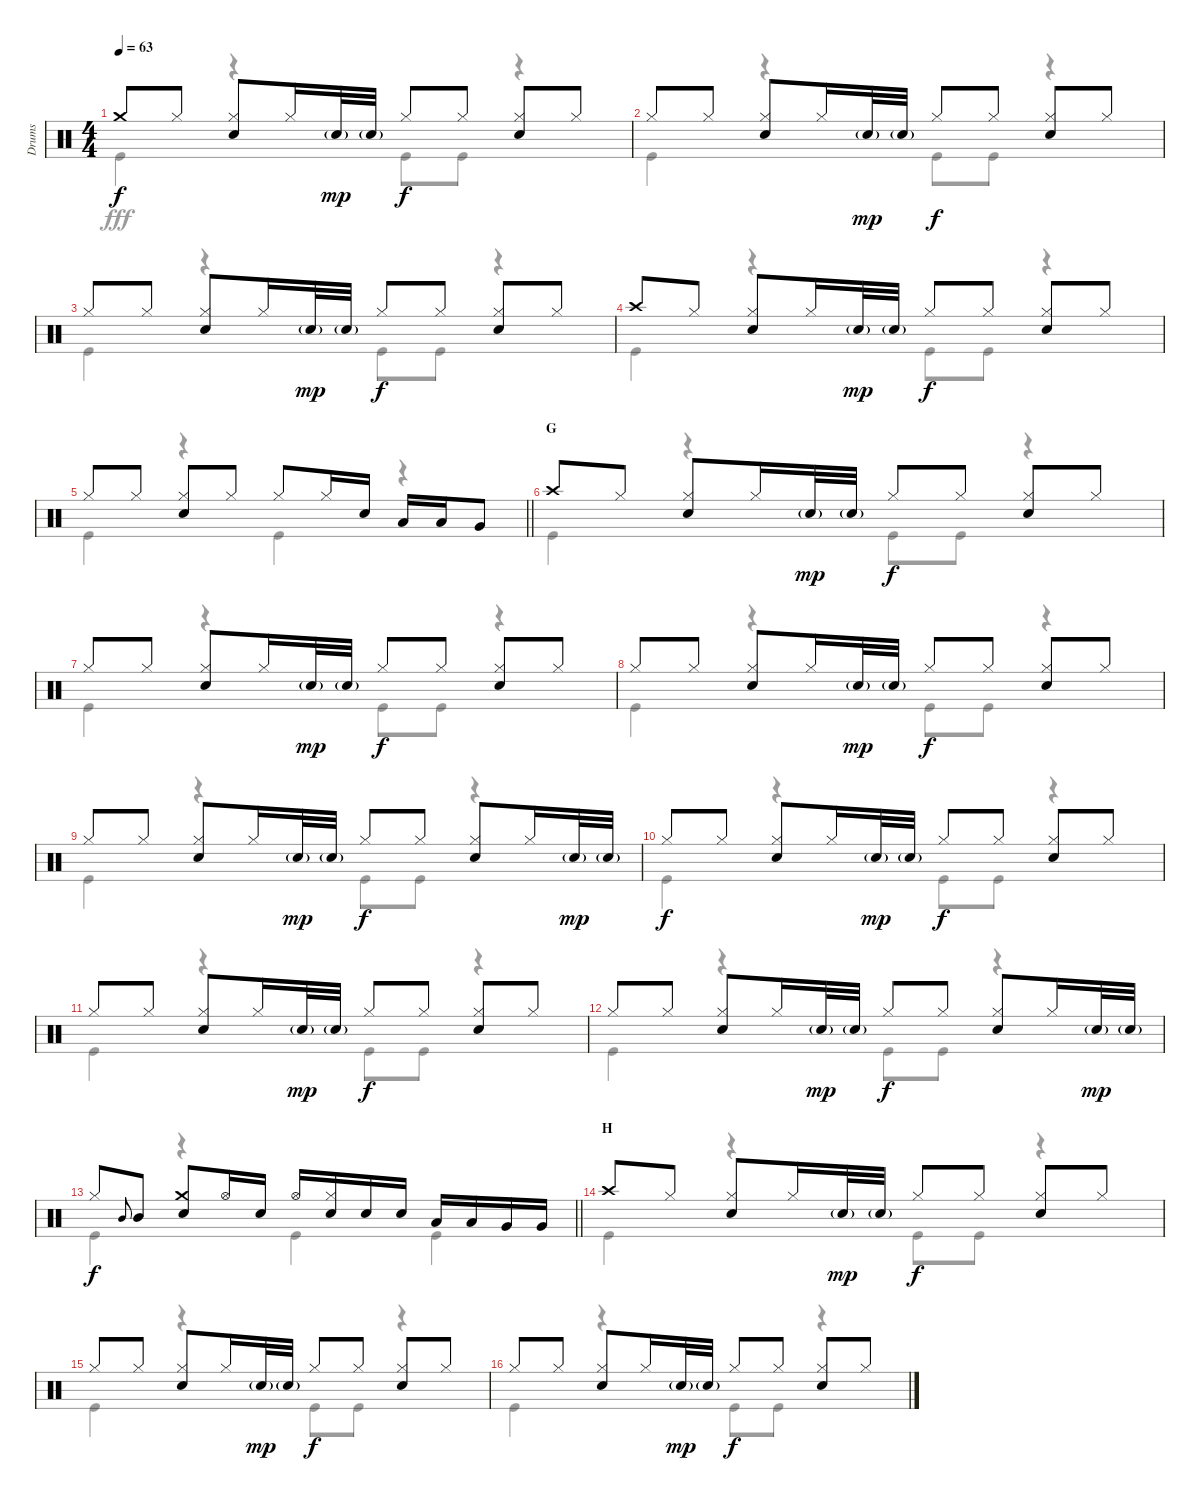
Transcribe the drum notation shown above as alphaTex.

\track ("Drums" "Drums") {instrument percussion}
\staff {score}
\articulation defaults
\voice
\ts (4 4)
\tempo 63
\clef neutral
\ks c "Crash medium (hit)".8{dy f} "Hi-Hat (closed)".8
("Hi-Hat (closed)" "Snare (hit) 2").8 "Hi-Hat (closed)".16 "Snare (hit) 2"{g}.32{dy mp} "Snare (hit) 2"{g}.32 "Hi-Hat (closed)".8{dy f} "Hi-Hat (closed)".8 ("Hi-Hat (closed)" "Snare (hit) 2").8 "Hi-Hat (closed)".8 |
"Hi-Hat (closed)".8 "Hi-Hat (closed)".8 ("Hi-Hat (closed)" "Snare (hit) 2").8 "Hi-Hat (closed)".16 "Snare (hit) 2"{g}.32{dy mp} "Snare (hit) 2"{g}.32 "Hi-Hat (closed)".8{dy f} "Hi-Hat (closed)".8 ("Hi-Hat (closed)" "Snare (hit) 2").8 "Hi-Hat (closed)".8 |
"Hi-Hat (closed)".8 "Hi-Hat (closed)".8 ("Hi-Hat (closed)" "Snare (hit) 2").8 "Hi-Hat (closed)".16 "Snare (hit) 2"{g}.32{dy mp} "Snare (hit) 2"{g}.32 "Hi-Hat (closed)".8{dy f} "Hi-Hat (closed)".8 ("Hi-Hat (closed)" "Snare (hit) 2").8 "Hi-Hat (closed)".8 |
"Crash high (hit)".8 "Hi-Hat (closed)".8 ("Hi-Hat (closed)" "Snare (hit) 2").8 "Hi-Hat (closed)".16 "Snare (hit) 2"{g}.32{dy mp} "Snare (hit) 2"{g}.32 "Hi-Hat (closed)".8{dy f} "Hi-Hat (closed)".8 ("Hi-Hat (closed)" "Snare (hit) 2").8 "Hi-Hat (closed)".8 |
\barLineRight lightlight "Hi-Hat (closed)".8 "Hi-Hat (closed)".8
("Hi-Hat (closed)" "Snare (hit) 2").8 "Hi-Hat (closed)".8 "Hi-Hat (closed)".8 "Hi-Hat (closed)".16 "Snare (hit) 2".16 "Low Tom (hit)".16 "Low Tom (hit)".16 "Very Low Tom (hit)".8 |
\section ("" "G")
"Crash high (hit)".8 "Hi-Hat (closed)".8 ("Hi-Hat (closed)" "Snare (hit) 2").8 "Hi-Hat (closed)".16 "Snare (hit) 2"{g}.32{dy mp} "Snare (hit) 2"{g}.32 "Hi-Hat (closed)".8{dy f} "Hi-Hat (closed)".8 ("Hi-Hat (closed)" "Snare (hit) 2").8 "Hi-Hat (closed)".8 |
"Hi-Hat (closed)".8 "Hi-Hat (closed)".8 ("Hi-Hat (closed)" "Snare (hit) 2").8 "Hi-Hat (closed)".16 "Snare (hit) 2"{g}.32{dy mp} "Snare (hit) 2"{g}.32 "Hi-Hat (closed)".8{dy f} "Hi-Hat (closed)".8 ("Hi-Hat (closed)" "Snare (hit) 2").8 "Hi-Hat (closed)".8 |
"Hi-Hat (closed)".8 "Hi-Hat (closed)".8 ("Hi-Hat (closed)" "Snare (hit) 2").8 "Hi-Hat (closed)".16 "Snare (hit) 2"{g}.32{dy mp} "Snare (hit) 2"{g}.32 "Hi-Hat (closed)".8{dy f} "Hi-Hat (closed)".8 ("Hi-Hat (closed)" "Snare (hit) 2").8 "Hi-Hat (closed)".8 |
"Hi-Hat (closed)".8 "Hi-Hat (closed)".8 ("Hi-Hat (closed)" "Snare (hit) 2").8 "Hi-Hat (closed)".16 "Snare (hit) 2"{g}.32{dy mp} "Snare (hit) 2"{g}.32 "Hi-Hat (closed)".8{dy f} "Hi-Hat (closed)".8 ("Hi-Hat (closed)" "Snare (hit) 2").8 "Hi-Hat (closed)".16 "Snare (hit) 2"{g}.32{dy mp} "Snare (hit) 2"{g}.32 |
"Hi-Hat (closed)".8{dy f} "Hi-Hat (closed)".8 ("Hi-Hat (closed)" "Snare (hit) 2").8 "Hi-Hat (closed)".16 "Snare (hit) 2"{g}.32{dy mp} "Snare (hit) 2"{g}.32 "Hi-Hat (closed)".8{dy f} "Hi-Hat (closed)".8 ("Hi-Hat (closed)" "Snare (hit) 2").8 "Hi-Hat (closed)".8 |
"Hi-Hat (closed)".8 "Hi-Hat (closed)".8 ("Hi-Hat (closed)" "Snare (hit) 2").8 "Hi-Hat (closed)".16 "Snare (hit) 2"{g}.32{dy mp} "Snare (hit) 2"{g}.32 "Hi-Hat (closed)".8{dy f} "Hi-Hat (closed)".8 ("Hi-Hat (closed)" "Snare (hit) 2").8 "Hi-Hat (closed)".8 |
"Hi-Hat (closed)".8 "Hi-Hat (closed)".8 ("Hi-Hat (closed)" "Snare (hit) 2").8 "Hi-Hat (closed)".16 "Snare (hit) 2"{g}.32{dy mp} "Snare (hit) 2"{g}.32 "Hi-Hat (closed)".8{dy f} "Hi-Hat (closed)".8 ("Hi-Hat (closed)" "Snare (hit) 2").8 "Hi-Hat (closed)".16 "Snare (hit) 2"{g}.32{dy mp} "Snare (hit) 2"{g}.32 |
\barLineRight lightlight "Hi-Hat (closed)".8{dy f} "Mid Tom (hit)".8{gr onbeat} "Mid Tom (hit)".8
("Crash medium (hit)" "Snare (hit) 2").8 "Hi-Hat (open)".16 "Snare (hit) 2".16 "Hi-Hat (open)".16 ("Hi-Hat (closed)" "Snare (hit) 2").16 "Snare (hit) 2".16 "Snare (hit) 2".16 "Low Tom (hit)".16 "Low Tom (hit)".16 "Very Low Tom (hit)".16 "Very Low Tom (hit)".16 |
\section ("" "H")
"Crash high (hit)".8 "Hi-Hat (closed)".8 ("Hi-Hat (closed)" "Snare (hit) 2").8 "Hi-Hat (closed)".16 "Snare (hit) 2"{g}.32{dy mp} "Snare (hit) 2"{g}.32 "Hi-Hat (closed)".8{dy f} "Hi-Hat (closed)".8 ("Hi-Hat (closed)" "Snare (hit) 2").8 "Hi-Hat (closed)".8 |
"Hi-Hat (closed)".8 "Hi-Hat (closed)".8 ("Hi-Hat (closed)" "Snare (hit) 2").8 "Hi-Hat (closed)".16 "Snare (hit) 2"{g}.32{dy mp} "Snare (hit) 2"{g}.32 "Hi-Hat (closed)".8{dy f} "Hi-Hat (closed)".8 ("Hi-Hat (closed)" "Snare (hit) 2").8 "Hi-Hat (closed)".8 |
"Hi-Hat (closed)".8 "Hi-Hat (closed)".8 ("Hi-Hat (closed)" "Snare (hit) 2").8 "Hi-Hat (closed)".16 "Snare (hit) 2"{g}.32{dy mp} "Snare (hit) 2"{g}.32 "Hi-Hat (closed)".8{dy f} "Hi-Hat (closed)".8 ("Hi-Hat (closed)" "Snare (hit) 2").8 "Hi-Hat (closed)".8
\voice
\clef neutral
\ottava regular
\simile none
\ks c "Kick (hit)".4{dy fff}
r.4 "Kick (hit)".8 "Kick (hit)".8 r.4 |
"Kick (hit)".4 r.4 "Kick (hit)".8 "Kick (hit)".8 r.4 |
"Kick (hit)".4 r.4 "Kick (hit)".8 "Kick (hit)".8 r.4 |
"Kick (hit)".4 r.4 "Kick (hit)".8 "Kick (hit)".8 r.4 |
\barLineRight lightlight "Kick (hit)".4
r.4 "Kick (hit)".4 r.4 |
"Kick (hit)".4 r.4 "Kick (hit)".8 "Kick (hit)".8 r.4 |
"Kick (hit)".4 r.4 "Kick (hit)".8 "Kick (hit)".8 r.4 |
"Kick (hit)".4 r.4 "Kick (hit)".8 "Kick (hit)".8 r.4 |
"Kick (hit)".4 r.4 "Kick (hit)".8 "Kick (hit)".8 r.4 |
"Kick (hit)".4 r.4 "Kick (hit)".8 "Kick (hit)".8 r.4 |
"Kick (hit)".4 r.4 "Kick (hit)".8 "Kick (hit)".8 r.4 |
"Kick (hit)".4 r.4 "Kick (hit)".8 "Kick (hit)".8 r.4 |
\barLineRight lightlight "Kick (hit)".4
r.4 "Kick (hit)".4 "Kick (hit)".4 |
"Kick (hit)".4 r.4 "Kick (hit)".8 "Kick (hit)".8 r.4 |
"Kick (hit)".4 r.4 "Kick (hit)".8 "Kick (hit)".8 r.4 |
"Kick (hit)".4 r.4 "Kick (hit)".8 "Kick (hit)".8 r.4
